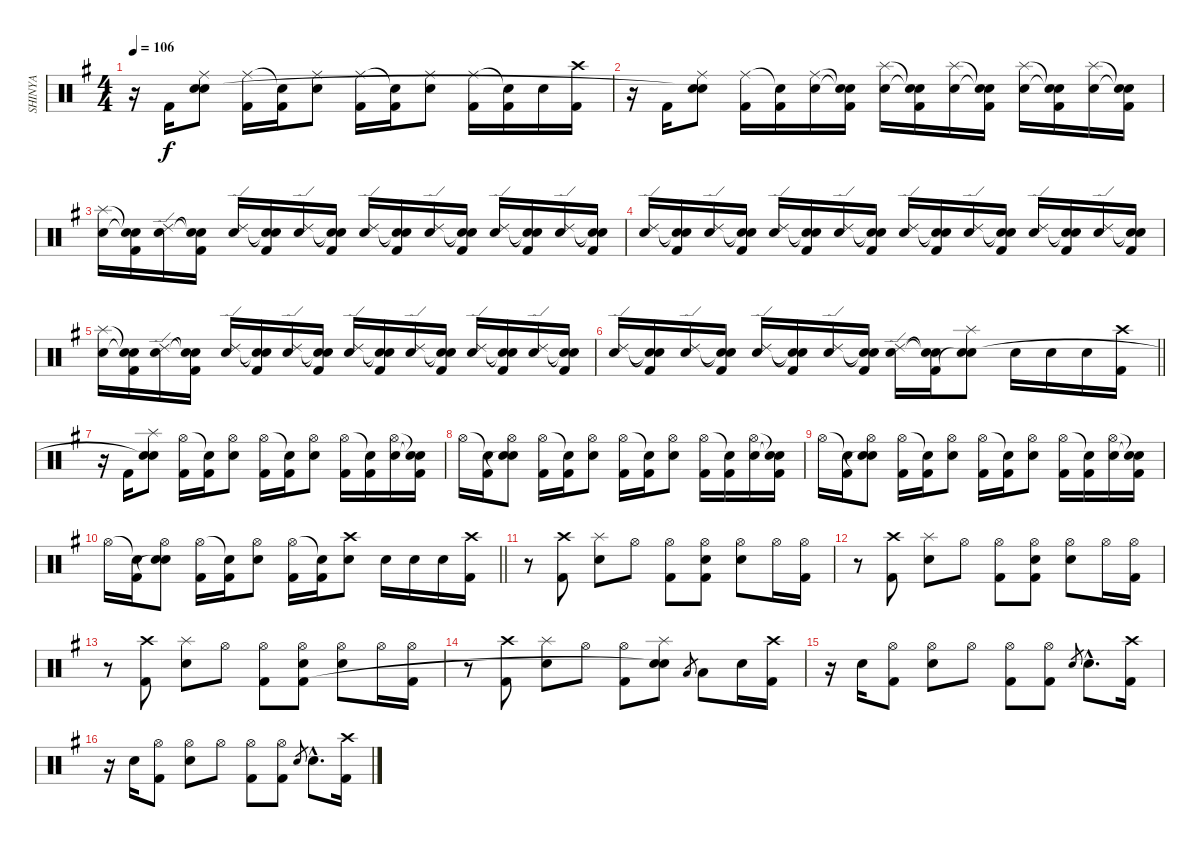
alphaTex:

\track ("SHINYA" "SHINYA") {instrument percussion}
\staff {score}
\articulation defaults
\ts (4 4)
\tempo 106
\clef neutral
\ks g
r.16{dy f} "Kick (hit) 2".16 ("Ride (middle)" "Electric Snare (hit)" "Snare (hit)"{t}).8 ("Ride (middle)" "Kick (hit) 2").16 ("Snare (hit)"{t} "Kick (hit) 2").16 ("Ride (middle)" "Electric Snare (hit)").8 ("Ride (middle)" "Kick (hit) 2").16 ("Snare (hit)"{t} "Kick (hit) 2").16 ("Ride (middle)" "Electric Snare (hit)").8 ("Ride (middle)" "Kick (hit) 2").16 ("Snare (hit)"{t} "Kick (hit) 2").16 "Electric Snare (hit)".16 ("Crash high (hit)" "Kick (hit) 2").16 |
r.16 "Kick (hit) 2".16 ("Ride (middle)" "Electric Snare (hit)" "Snare (hit)"{t}).8 ("Ride (middle)" "Kick (hit) 2").16 ("Snare (hit)"{t} "Kick (hit) 2").16 ("Ride (middle)" "Electric Snare (hit)").16 ("Snare (hit)"{t} "Snare (hit)"{t} "Kick (hit) 2").16 ("Splash (hit)" "Electric Snare (hit)").16 ("Snare (hit)"{t} "Snare (hit)"{t} "Kick (hit) 2").16 ("Splash (hit)" "Electric Snare (hit)").16 ("Snare (hit)"{t} "Snare (hit)"{t} "Kick (hit) 2").16 ("Splash (hit)" "Electric Snare (hit)").16 ("Snare (hit)"{t} "Snare (hit)"{t} "Kick (hit) 2").16 ("Splash (hit)" "Electric Snare (hit)").16 ("Snare (hit)"{t} "Snare (hit)"{t} "Kick (hit) 2").16 |
("Splash (hit)" "Electric Snare (hit)").16 ("Snare (hit)"{t} "Snare (hit)"{t} "Kick (hit) 2").16 ("Ride (edge) 2" "Electric Snare (hit)").16 ("Snare (hit)"{t} "Snare (hit)"{t} "Kick (hit) 2").16 ("Ride (edge) 2" "Electric Snare (hit)").16 ("Snare (hit)"{t} "Snare (hit)"{t} "Kick (hit) 2").16 ("Ride (edge) 2" "Electric Snare (hit)").16 ("Snare (hit)"{t} "Snare (hit)"{t} "Kick (hit) 2").16 ("Ride (edge) 2" "Electric Snare (hit)").16 ("Snare (hit)"{t} "Snare (hit)"{t} "Kick (hit) 2").16 ("Ride (edge) 2" "Electric Snare (hit)").16 ("Snare (hit)"{t} "Snare (hit)"{t} "Kick (hit) 2").16 ("Ride (edge) 2" "Electric Snare (hit)").16 ("Snare (hit)"{t} "Snare (hit)"{t} "Kick (hit) 2").16 ("Ride (edge) 2" "Electric Snare (hit)").16 ("Snare (hit)"{t} "Snare (hit)"{t} "Kick (hit) 2").16 |
("Ride (edge) 2" "Electric Snare (hit)").16 ("Snare (hit)"{t} "Snare (hit)"{t} "Kick (hit) 2").16 ("Ride (edge) 2" "Electric Snare (hit)").16 ("Snare (hit)"{t} "Snare (hit)"{t} "Kick (hit) 2").16 ("Ride (edge) 2" "Electric Snare (hit)").16 ("Snare (hit)"{t} "Snare (hit)"{t} "Kick (hit) 2").16 ("Ride (edge) 2" "Electric Snare (hit)").16 ("Snare (hit)"{t} "Snare (hit)"{t} "Kick (hit) 2").16 ("Ride (edge) 2" "Electric Snare (hit)").16 ("Snare (hit)"{t} "Snare (hit)"{t} "Kick (hit) 2").16 ("Ride (edge) 2" "Electric Snare (hit)").16 ("Snare (hit)"{t} "Snare (hit)"{t} "Kick (hit) 2").16 ("Ride (edge) 2" "Electric Snare (hit)").16 ("Snare (hit)"{t} "Snare (hit)"{t} "Kick (hit) 2").16 ("Ride (edge) 2" "Electric Snare (hit)").16 ("Snare (hit)"{t} "Snare (hit)"{t} "Kick (hit) 2").16 |
("Splash (hit)" "Electric Snare (hit)").16 ("Snare (hit)"{t} "Snare (hit)"{t} "Kick (hit) 2").16 ("Ride (edge) 2" "Electric Snare (hit)").16 ("Snare (hit)"{t} "Snare (hit)"{t} "Kick (hit) 2").16 ("Ride (edge) 2" "Electric Snare (hit)").16 ("Snare (hit)"{t} "Snare (hit)"{t} "Kick (hit) 2").16 ("Ride (edge) 2" "Electric Snare (hit)").16 ("Snare (hit)"{t} "Snare (hit)"{t} "Kick (hit) 2").16 ("Ride (edge) 2" "Electric Snare (hit)").16 ("Snare (hit)"{t} "Snare (hit)"{t} "Kick (hit) 2").16 ("Ride (edge) 2" "Electric Snare (hit)").16 ("Snare (hit)"{t} "Snare (hit)"{t} "Kick (hit) 2").16 ("Ride (edge) 2" "Electric Snare (hit)").16 ("Snare (hit)"{t} "Snare (hit)"{t} "Kick (hit) 2").16 ("Ride (edge) 2" "Electric Snare (hit)").16 ("Snare (hit)"{t} "Snare (hit)"{t} "Kick (hit) 2").16 |
\barLineRight lightlight
("Ride (edge) 2" "Electric Snare (hit)").16 ("Snare (hit)"{t} "Snare (hit)"{t} "Kick (hit) 2").16 ("Ride (edge) 2" "Electric Snare (hit)").16 ("Snare (hit)"{t} "Snare (hit)"{t} "Kick (hit) 2").16 ("Ride (edge) 2" "Electric Snare (hit)").16 ("Snare (hit)"{t} "Snare (hit)"{t} "Kick (hit) 2").16 ("Ride (edge) 2" "Electric Snare (hit)").16 ("Snare (hit)"{t} "Snare (hit)"{t} "Kick (hit) 2").16 ("Ride (edge) 2" "Electric Snare (hit)").16 ("Snare (hit)"{t} "Snare (hit)"{t} "Kick (hit) 2").16 ("Splash (hit)" "Electric Snare (hit)" "Snare (hit)"{t}).8 "Electric Snare (hit)".16 "Electric Snare (hit)".16 "Electric Snare (hit)".16 ("Crash high (hit)" "Kick (hit) 2").16 |
r.16 "Kick (hit) 2".16 ("Splash (hit)" "Electric Snare (hit)" "Snare (hit)"{t}).8 ("Hi-Hat (open)" "Kick (hit) 2").16 ("Snare (hit)"{t} "Kick (hit) 2").16 ("Hi-Hat (open)" "Electric Snare (hit)").8 ("Hi-Hat (open)" "Kick (hit) 2").16 ("Snare (hit)"{t} "Kick (hit) 2").16 ("Hi-Hat (open)" "Electric Snare (hit)").8 ("Hi-Hat (open)" "Kick (hit) 2").16 ("Snare (hit)"{t} "Kick (hit) 2").16 ("Hi-Hat (open)" "Electric Snare (hit)").16 ("Snare (hit)"{t} "Snare (hit)"{t} "Kick (hit) 2").16 |
"Hi-Hat (open)".16 ("Snare (hit)"{t} "Kick (hit) 2").16 ("Hi-Hat (open)" "Snare (hit)"{t} "Electric Snare (hit)").8 ("Hi-Hat (open)" "Kick (hit) 2").16 ("Snare (hit)"{t} "Kick (hit) 2").16 ("Hi-Hat (open)" "Electric Snare (hit)").8 ("Hi-Hat (open)" "Kick (hit) 2").16 ("Snare (hit)"{t} "Kick (hit) 2").16 ("Hi-Hat (open)" "Electric Snare (hit)").8 ("Hi-Hat (open)" "Kick (hit) 2").16 ("Snare (hit)"{t} "Kick (hit) 2").16 ("Hi-Hat (open)" "Electric Snare (hit)").16 ("Snare (hit)"{t} "Snare (hit)"{t} "Kick (hit) 2").16 |
"Hi-Hat (open)".16 ("Snare (hit)"{t} "Kick (hit) 2").16 ("Hi-Hat (open)" "Snare (hit)"{t} "Electric Snare (hit)").8 ("Hi-Hat (open)" "Kick (hit) 2").16 ("Snare (hit)"{t} "Kick (hit) 2").16 ("Hi-Hat (open)" "Electric Snare (hit)").8 ("Hi-Hat (open)" "Kick (hit) 2").16 ("Snare (hit)"{t} "Kick (hit) 2").16 ("Hi-Hat (open)" "Electric Snare (hit)").8 ("Hi-Hat (open)" "Kick (hit) 2").16 ("Snare (hit)"{t} "Kick (hit) 2").16 ("Hi-Hat (open)" "Electric Snare (hit)").16 ("Snare (hit)"{t} "Snare (hit)"{t} "Kick (hit) 2").16 |
\barLineRight lightlight "Hi-Hat (open)".16
("Snare (hit)"{t} "Kick (hit) 2").16 ("Hi-Hat (open)" "Snare (hit)"{t} "Electric Snare (hit)").8 ("Hi-Hat (open)" "Kick (hit) 2").16 ("Snare (hit)"{t} "Kick (hit) 2").16 ("Hi-Hat (open)" "Electric Snare (hit)").8 ("Hi-Hat (open)" "Kick (hit) 2").16 ("Snare (hit)"{t} "Kick (hit) 2").16 ("Crash high (hit)" "Electric Snare (hit)").8 "Electric Snare (hit)".16 "Electric Snare (hit)".16 "Electric Snare (hit)".16 ("Crash high (hit)" "Kick (hit) 2").16 |
r.8 ("Crash high (hit)" "Kick (hit) 2").8 ("Splash (hit)" "Electric Snare (hit)").8 "Hi-Hat (open)".8 ("Hi-Hat (open)" "Kick (hit) 2").8 ("Hi-Hat (open)" "Electric Snare (hit)" "Kick (hit) 2").8 ("Hi-Hat (open)" "Electric Snare (hit)").8 "Hi-Hat (open)".16 ("Hi-Hat (open)" "Kick (hit) 2").16 |
r.8 ("Crash high (hit)" "Kick (hit) 2").8 ("Splash (hit)" "Electric Snare (hit)").8 "Hi-Hat (open)".8 ("Hi-Hat (open)" "Kick (hit) 2").8 ("Hi-Hat (open)" "Electric Snare (hit)" "Kick (hit) 2").8 ("Hi-Hat (open)" "Electric Snare (hit)").8 "Hi-Hat (open)".16 ("Hi-Hat (open)" "Kick (hit) 2").16 |
r.8 ("Crash high (hit)" "Kick (hit) 2").8 ("Splash (hit)" "Electric Snare (hit)").8 "Hi-Hat (open)".8 ("Hi-Hat (open)" "Kick (hit) 2").8 ("Hi-Hat (open)" "Electric Snare (hit)" "Kick (hit) 2").8 ("Hi-Hat (open)" "Electric Snare (hit)").8 "Hi-Hat (open)".16 ("Hi-Hat (open)" "Kick (hit) 2").16 |
r.8 ("Crash high (hit)" "Kick (hit) 2").8 ("Splash (hit)" "Electric Snare (hit)").8 "Hi-Hat (open)".8 ("Hi-Hat (open)" "Kick (hit) 2").8 ("Splash (hit)" "Electric Snare (hit)" "Snare (hit)"{t}).8 "Low Tom (hit)".8{gr} "Low Tom (hit)".8 "Electric Snare (hit)".16 ("Crash high (hit)" "Kick (hit) 2").16 |
r.16 "Electric Snare (hit)".16 ("Hi-Hat (open)" "Kick (hit) 2").8 ("Hi-Hat (open)" "Electric Snare (hit)").8 "Hi-Hat (open)".8 ("Hi-Hat (open)" "Kick (hit) 2").8 ("Hi-Hat (open)" "Kick (hit) 2").8 "Electric Snare (hit)".8{gr} "Electric Snare (hit)"{hac}.8{d} ("Crash high (hit)" "Kick (hit) 2").16 |
r.16 "Electric Snare (hit)".16 ("Hi-Hat (open)" "Kick (hit) 2").8 ("Hi-Hat (open)" "Electric Snare (hit)").8 "Hi-Hat (open)".8 ("Hi-Hat (open)" "Kick (hit) 2").8 ("Hi-Hat (open)" "Kick (hit) 2").8 "Electric Snare (hit)".8{gr} "Electric Snare (hit)"{hac}.8{d} ("Crash high (hit)" "Kick (hit) 2").16
